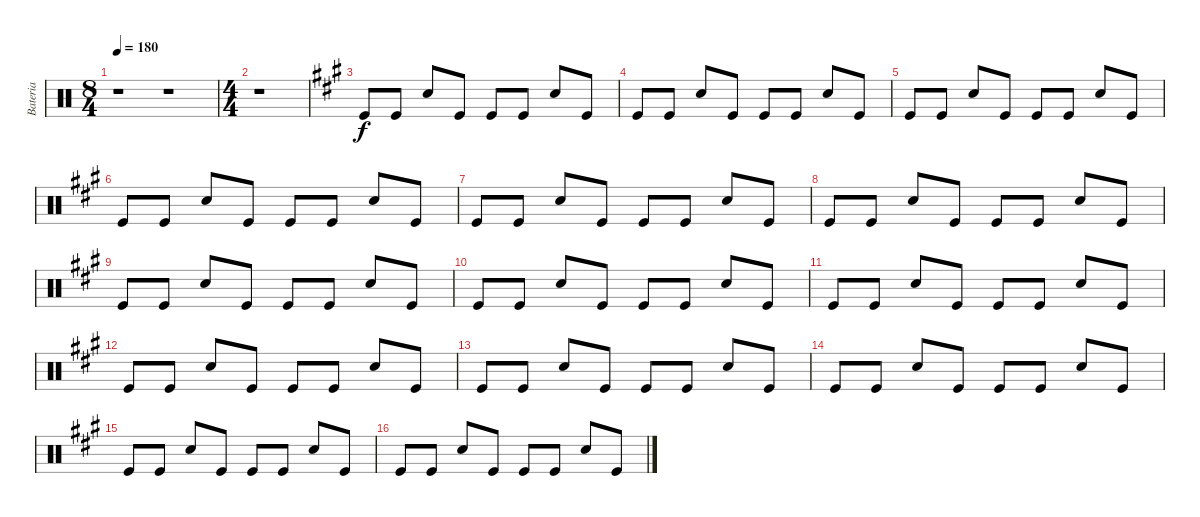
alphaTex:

\track ("Bateria" "Bateria") {instrument percussion}
\staff {score}
\articulation defaults
\ts (8 4)
\tempo 180
\clef neutral
\ks c
r.1{dy f} r.1 |
\ts (4 4)
r.1 |
\ks a "Kick (hit)".8 "Kick (hit)".8 "Electric Snare (hit)".8 "Kick (hit)".8 "Kick (hit)".8 "Kick (hit)".8 "Electric Snare (hit)".8 "Kick (hit)".8
|
"Kick (hit)".8 "Kick (hit)".8 "Electric Snare (hit)".8 "Kick (hit)".8 "Kick (hit)".8 "Kick (hit)".8 "Electric Snare (hit)".8 "Kick (hit)".8 |
"Kick (hit)".8 "Kick (hit)".8 "Electric Snare (hit)".8 "Kick (hit)".8 "Kick (hit)".8 "Kick (hit)".8 "Electric Snare (hit)".8 "Kick (hit)".8 |
"Kick (hit)".8 "Kick (hit)".8 "Electric Snare (hit)".8 "Kick (hit)".8 "Kick (hit)".8 "Kick (hit)".8 "Electric Snare (hit)".8 "Kick (hit)".8 |
"Kick (hit)".8 "Kick (hit)".8 "Electric Snare (hit)".8 "Kick (hit)".8 "Kick (hit)".8 "Kick (hit)".8 "Electric Snare (hit)".8 "Kick (hit)".8 |
"Kick (hit)".8 "Kick (hit)".8 "Electric Snare (hit)".8 "Kick (hit)".8 "Kick (hit)".8 "Kick (hit)".8 "Electric Snare (hit)".8 "Kick (hit)".8 |
"Kick (hit)".8 "Kick (hit)".8 "Electric Snare (hit)".8 "Kick (hit)".8 "Kick (hit)".8 "Kick (hit)".8 "Electric Snare (hit)".8 "Kick (hit)".8 |
"Kick (hit)".8 "Kick (hit)".8 "Electric Snare (hit)".8 "Kick (hit)".8 "Kick (hit)".8 "Kick (hit)".8 "Electric Snare (hit)".8 "Kick (hit)".8 |
"Kick (hit)".8 "Kick (hit)".8 "Electric Snare (hit)".8 "Kick (hit)".8 "Kick (hit)".8 "Kick (hit)".8 "Electric Snare (hit)".8 "Kick (hit)".8 |
"Kick (hit)".8 "Kick (hit)".8 "Electric Snare (hit)".8 "Kick (hit)".8 "Kick (hit)".8 "Kick (hit)".8 "Electric Snare (hit)".8 "Kick (hit)".8 |
"Kick (hit)".8 "Kick (hit)".8 "Electric Snare (hit)".8 "Kick (hit)".8 "Kick (hit)".8 "Kick (hit)".8 "Electric Snare (hit)".8 "Kick (hit)".8 |
"Kick (hit)".8 "Kick (hit)".8 "Electric Snare (hit)".8 "Kick (hit)".8 "Kick (hit)".8 "Kick (hit)".8 "Electric Snare (hit)".8 "Kick (hit)".8 |
"Kick (hit)".8 "Kick (hit)".8 "Electric Snare (hit)".8 "Kick (hit)".8 "Kick (hit)".8 "Kick (hit)".8 "Electric Snare (hit)".8 "Kick (hit)".8 |
"Kick (hit)".8 "Kick (hit)".8 "Electric Snare (hit)".8 "Kick (hit)".8 "Kick (hit)".8 "Kick (hit)".8 "Electric Snare (hit)".8 "Kick (hit)".8
